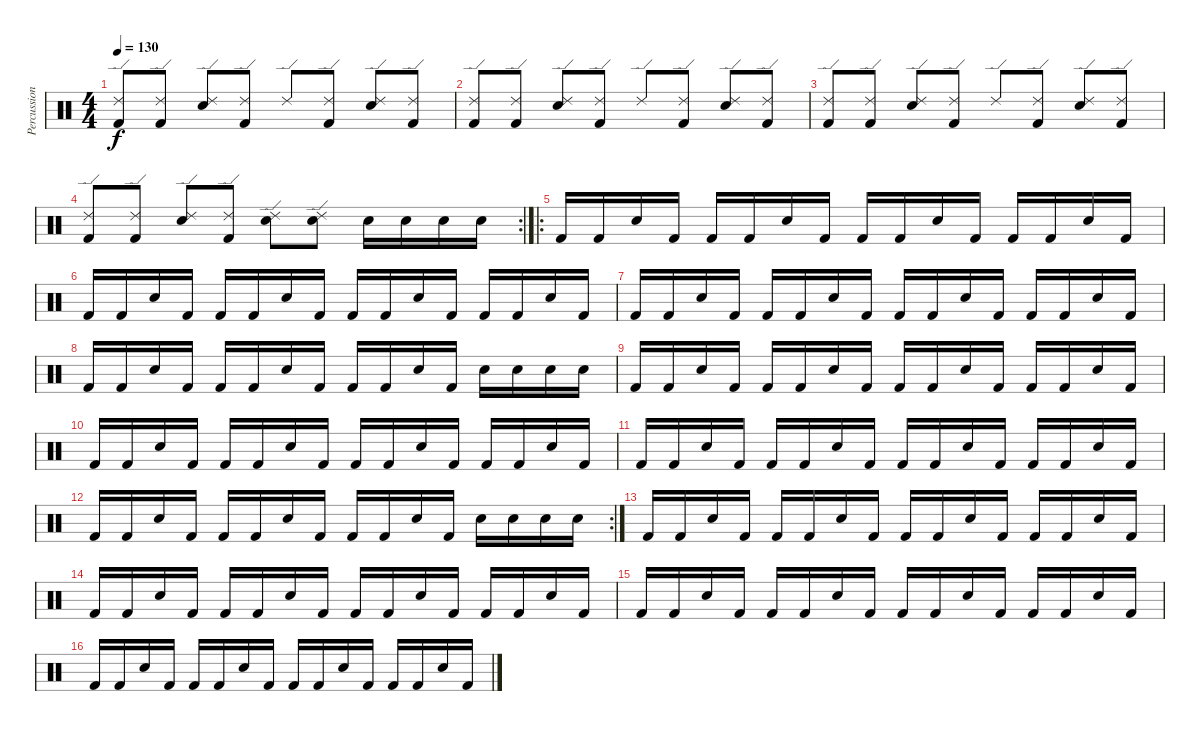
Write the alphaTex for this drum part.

\track ("Percussion" "Percussion") {instrument percussion}
\staff {score}
\articulation defaults
\ts (4 4)
\tempo 130
\clef neutral
\ks c
("Kick (hit) 2" "Ride (edge) 2").8{dy f} ("Kick (hit) 2" "Ride (edge) 2").8 ("Snare (hit) 2" "Ride (edge) 2").8 ("Kick (hit) 2" "Ride (edge) 2").8 "Ride (edge) 2".8 ("Kick (hit) 2" "Ride (edge) 2").8 ("Snare (hit) 2" "Ride (edge) 2").8 ("Kick (hit) 2" "Ride (edge) 2").8 |
("Kick (hit) 2" "Ride (edge) 2").8 ("Kick (hit) 2" "Ride (edge) 2").8 ("Snare (hit) 2" "Ride (edge) 2").8 ("Kick (hit) 2" "Ride (edge) 2").8 "Ride (edge) 2".8 ("Kick (hit) 2" "Ride (edge) 2").8 ("Snare (hit) 2" "Ride (edge) 2").8 ("Kick (hit) 2" "Ride (edge) 2").8 |
("Kick (hit) 2" "Ride (edge) 2").8 ("Kick (hit) 2" "Ride (edge) 2").8 ("Snare (hit) 2" "Ride (edge) 2").8 ("Kick (hit) 2" "Ride (edge) 2").8 "Ride (edge) 2".8 ("Kick (hit) 2" "Ride (edge) 2").8 ("Snare (hit) 2" "Ride (edge) 2").8 ("Kick (hit) 2" "Ride (edge) 2").8 |
\rc 2
("Kick (hit) 2" "Ride (edge) 2").8 ("Kick (hit) 2" "Ride (edge) 2").8 ("Snare (hit) 2" "Ride (edge) 2").8 ("Kick (hit) 2" "Ride (edge) 2").8 ("Snare (hit) 2" "Ride (edge) 2").8 ("Snare (hit) 2" "Ride (edge) 2").8 "Snare (hit) 2".16 "Snare (hit) 2".16 "Snare (hit) 2".16 "Snare (hit) 2".16 |
\ro "Kick (hit) 2".16 "Kick (hit) 2".16 "Snare (hit) 2".16 "Kick (hit) 2".16 "Kick (hit) 2".16 "Kick (hit) 2".16 "Snare (hit) 2".16 "Kick (hit) 2".16 "Kick (hit) 2".16 "Kick (hit) 2".16 "Snare (hit) 2".16 "Kick (hit) 2".16 "Kick (hit) 2".16 "Kick (hit) 2".16 "Snare (hit) 2".16 "Kick (hit) 2".16
|
"Kick (hit) 2".16 "Kick (hit) 2".16 "Snare (hit) 2".16 "Kick (hit) 2".16 "Kick (hit) 2".16 "Kick (hit) 2".16 "Snare (hit) 2".16 "Kick (hit) 2".16 "Kick (hit) 2".16 "Kick (hit) 2".16 "Snare (hit) 2".16 "Kick (hit) 2".16 "Kick (hit) 2".16 "Kick (hit) 2".16 "Snare (hit) 2".16 "Kick (hit) 2".16 |
"Kick (hit) 2".16 "Kick (hit) 2".16 "Snare (hit) 2".16 "Kick (hit) 2".16 "Kick (hit) 2".16 "Kick (hit) 2".16 "Snare (hit) 2".16 "Kick (hit) 2".16 "Kick (hit) 2".16 "Kick (hit) 2".16 "Snare (hit) 2".16 "Kick (hit) 2".16 "Kick (hit) 2".16 "Kick (hit) 2".16 "Snare (hit) 2".16 "Kick (hit) 2".16 |
"Kick (hit) 2".16 "Kick (hit) 2".16 "Snare (hit) 2".16 "Kick (hit) 2".16 "Kick (hit) 2".16 "Kick (hit) 2".16 "Snare (hit) 2".16 "Kick (hit) 2".16 "Kick (hit) 2".16 "Kick (hit) 2".16 "Snare (hit) 2".16 "Kick (hit) 2".16 "Snare (hit) 2".16 "Snare (hit) 2".16 "Snare (hit) 2".16 "Snare (hit) 2".16 |
"Kick (hit) 2".16 "Kick (hit) 2".16 "Snare (hit) 2".16 "Kick (hit) 2".16 "Kick (hit) 2".16 "Kick (hit) 2".16 "Snare (hit) 2".16 "Kick (hit) 2".16 "Kick (hit) 2".16 "Kick (hit) 2".16 "Snare (hit) 2".16 "Kick (hit) 2".16 "Kick (hit) 2".16 "Kick (hit) 2".16 "Snare (hit) 2".16 "Kick (hit) 2".16 |
"Kick (hit) 2".16 "Kick (hit) 2".16 "Snare (hit) 2".16 "Kick (hit) 2".16 "Kick (hit) 2".16 "Kick (hit) 2".16 "Snare (hit) 2".16 "Kick (hit) 2".16 "Kick (hit) 2".16 "Kick (hit) 2".16 "Snare (hit) 2".16 "Kick (hit) 2".16 "Kick (hit) 2".16 "Kick (hit) 2".16 "Snare (hit) 2".16 "Kick (hit) 2".16 |
"Kick (hit) 2".16 "Kick (hit) 2".16 "Snare (hit) 2".16 "Kick (hit) 2".16 "Kick (hit) 2".16 "Kick (hit) 2".16 "Snare (hit) 2".16 "Kick (hit) 2".16 "Kick (hit) 2".16 "Kick (hit) 2".16 "Snare (hit) 2".16 "Kick (hit) 2".16 "Kick (hit) 2".16 "Kick (hit) 2".16 "Snare (hit) 2".16 "Kick (hit) 2".16 |
\rc 2 "Kick (hit) 2".16 "Kick (hit) 2".16 "Snare (hit) 2".16 "Kick (hit) 2".16 "Kick (hit) 2".16 "Kick (hit) 2".16 "Snare (hit) 2".16 "Kick (hit) 2".16 "Kick (hit) 2".16 "Kick (hit) 2".16 "Snare (hit) 2".16 "Kick (hit) 2".16 "Snare (hit) 2".16 "Snare (hit) 2".16 "Snare (hit) 2".16 "Snare (hit) 2".16
|
"Kick (hit) 2".16 "Kick (hit) 2".16 "Snare (hit) 2".16 "Kick (hit) 2".16 "Kick (hit) 2".16 "Kick (hit) 2".16 "Snare (hit) 2".16 "Kick (hit) 2".16 "Kick (hit) 2".16 "Kick (hit) 2".16 "Snare (hit) 2".16 "Kick (hit) 2".16 "Kick (hit) 2".16 "Kick (hit) 2".16 "Snare (hit) 2".16 "Kick (hit) 2".16 |
"Kick (hit) 2".16 "Kick (hit) 2".16 "Snare (hit) 2".16 "Kick (hit) 2".16 "Kick (hit) 2".16 "Kick (hit) 2".16 "Snare (hit) 2".16 "Kick (hit) 2".16 "Kick (hit) 2".16 "Kick (hit) 2".16 "Snare (hit) 2".16 "Kick (hit) 2".16 "Kick (hit) 2".16 "Kick (hit) 2".16 "Snare (hit) 2".16 "Kick (hit) 2".16 |
"Kick (hit) 2".16 "Kick (hit) 2".16 "Snare (hit) 2".16 "Kick (hit) 2".16 "Kick (hit) 2".16 "Kick (hit) 2".16 "Snare (hit) 2".16 "Kick (hit) 2".16 "Kick (hit) 2".16 "Kick (hit) 2".16 "Snare (hit) 2".16 "Kick (hit) 2".16 "Kick (hit) 2".16 "Kick (hit) 2".16 "Snare (hit) 2".16 "Kick (hit) 2".16 |
"Kick (hit) 2".16 "Kick (hit) 2".16 "Snare (hit) 2".16 "Kick (hit) 2".16 "Kick (hit) 2".16 "Kick (hit) 2".16 "Snare (hit) 2".16 "Kick (hit) 2".16 "Kick (hit) 2".16 "Kick (hit) 2".16 "Snare (hit) 2".16 "Kick (hit) 2".16 "Kick (hit) 2".16 "Kick (hit) 2".16 "Snare (hit) 2".16 "Kick (hit) 2".16
